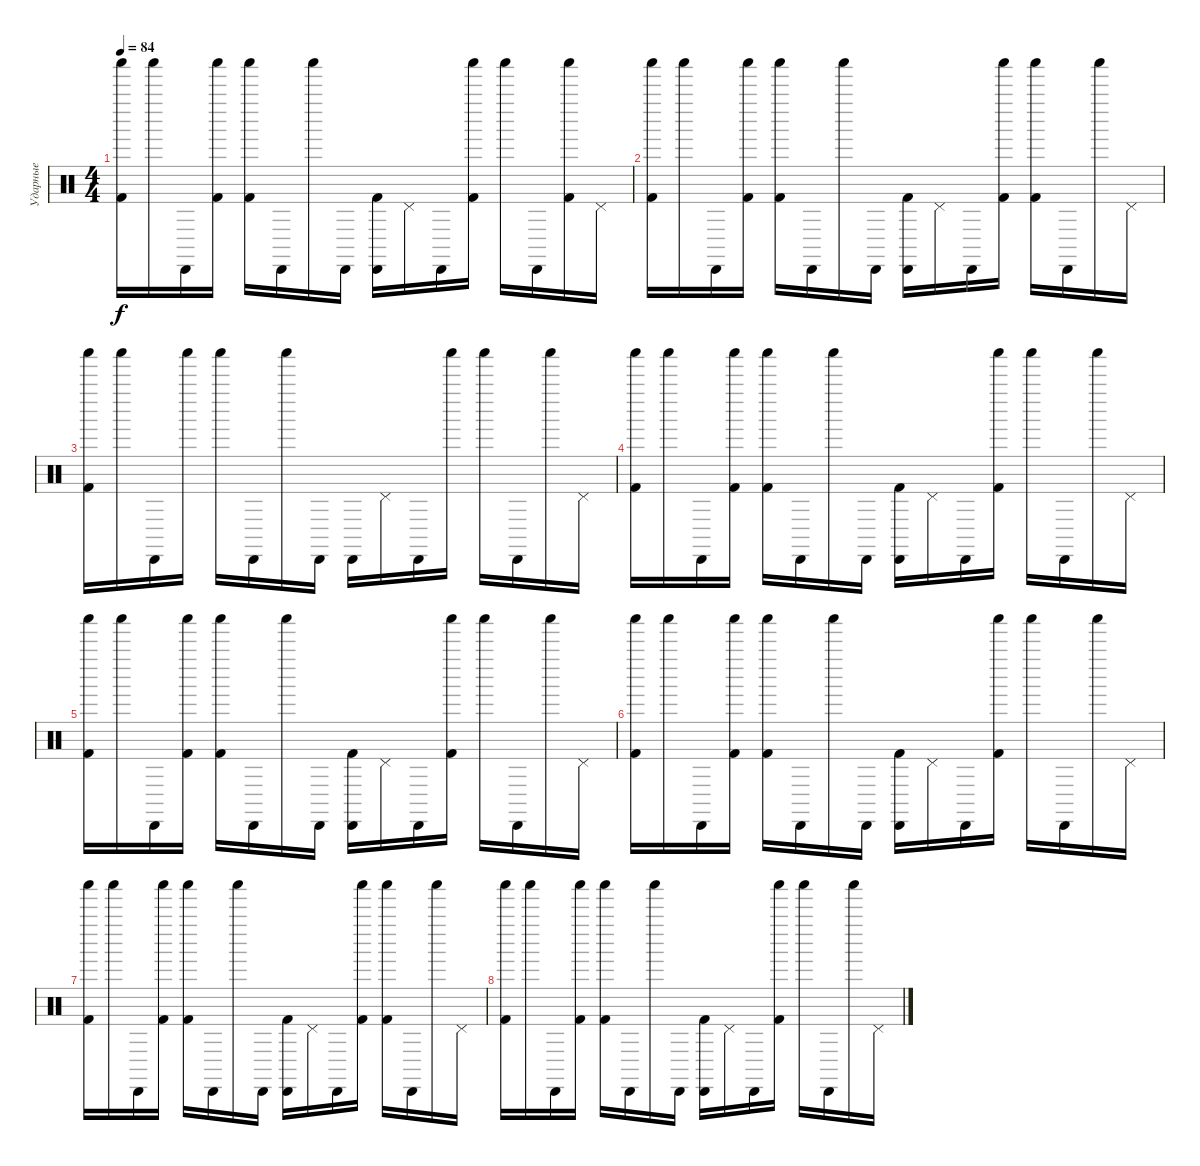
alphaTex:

\track ("Ударные" "Ударные") {instrument percussion}
\staff {score}
\articulation defaults
\ts (4 4)
\tempo 84
\clef neutral
\ks c
("Shaker (hit)" "Kick (hit) 2").16{dy f} "Shaker (hit)".16 "Cabasa (hit)".16 ("Shaker (hit)" "Kick (hit) 2").16 ("Shaker (hit)" "Kick (hit) 2").16 "Cabasa (hit)".16 "Shaker (hit)".16 "Cabasa (hit)".16 ("Cabasa (hit)" "Kick (hit) 2").16 "Pedal Hi-Hat (hit)".16 "Cabasa (hit)".16 ("Shaker (hit)" "Kick (hit) 2").16 "Shaker (hit)".16 "Cabasa (hit)".16 ("Shaker (hit)" "Kick (hit) 2").16 "Pedal Hi-Hat (hit)".16 |
("Shaker (hit)" "Kick (hit) 2").16 "Shaker (hit)".16 "Cabasa (hit)".16 ("Shaker (hit)" "Kick (hit) 2").16 ("Shaker (hit)" "Kick (hit) 2").16 "Cabasa (hit)".16 "Shaker (hit)".16 "Cabasa (hit)".16 ("Cabasa (hit)" "Kick (hit) 2").16 "Pedal Hi-Hat (hit)".16 "Cabasa (hit)".16 ("Shaker (hit)" "Kick (hit) 2").16 ("Shaker (hit)" "Kick (hit) 2").16 "Cabasa (hit)".16 "Shaker (hit)".16 "Pedal Hi-Hat (hit)".16 |
("Shaker (hit)" "Kick (hit) 2").16 "Shaker (hit)".16 "Cabasa (hit)".16 "Shaker (hit)".16 "Shaker (hit)".16 "Cabasa (hit)".16 "Shaker (hit)".16 "Cabasa (hit)".16 "Cabasa (hit)".16 "Pedal Hi-Hat (hit)".16 "Cabasa (hit)".16 "Shaker (hit)".16 "Shaker (hit)".16 "Cabasa (hit)".16 "Shaker (hit)".16 "Pedal Hi-Hat (hit)".16 |
("Shaker (hit)" "Kick (hit) 2").16 "Shaker (hit)".16 "Cabasa (hit)".16 ("Shaker (hit)" "Kick (hit) 2").16 ("Shaker (hit)" "Kick (hit) 2").16 "Cabasa (hit)".16 "Shaker (hit)".16 "Cabasa (hit)".16 ("Cabasa (hit)" "Kick (hit) 2").16 "Pedal Hi-Hat (hit)".16 "Cabasa (hit)".16 ("Shaker (hit)" "Kick (hit) 2").16 "Shaker (hit)".16 "Cabasa (hit)".16 "Shaker (hit)".16 "Pedal Hi-Hat (hit)".16 |
("Shaker (hit)" "Kick (hit) 2").16 "Shaker (hit)".16 "Cabasa (hit)".16 ("Shaker (hit)" "Kick (hit) 2").16 ("Shaker (hit)" "Kick (hit) 2").16 "Cabasa (hit)".16 "Shaker (hit)".16 "Cabasa (hit)".16 ("Cabasa (hit)" "Kick (hit) 2").16 "Pedal Hi-Hat (hit)".16 "Cabasa (hit)".16 ("Shaker (hit)" "Kick (hit) 2").16 "Shaker (hit)".16 "Cabasa (hit)".16 "Shaker (hit)".16 "Pedal Hi-Hat (hit)".16 |
("Shaker (hit)" "Kick (hit) 2").16 "Shaker (hit)".16 "Cabasa (hit)".16 ("Shaker (hit)" "Kick (hit) 2").16 ("Shaker (hit)" "Kick (hit) 2").16 "Cabasa (hit)".16 "Shaker (hit)".16 "Cabasa (hit)".16 ("Cabasa (hit)" "Kick (hit) 2").16 "Pedal Hi-Hat (hit)".16 "Cabasa (hit)".16 ("Shaker (hit)" "Kick (hit) 2").16 "Shaker (hit)".16 "Cabasa (hit)".16 "Shaker (hit)".16 "Pedal Hi-Hat (hit)".16 |
("Shaker (hit)" "Kick (hit) 2").16 "Shaker (hit)".16 "Cabasa (hit)".16 ("Shaker (hit)" "Kick (hit) 2").16 ("Shaker (hit)" "Kick (hit) 2").16 "Cabasa (hit)".16 "Shaker (hit)".16 "Cabasa (hit)".16 ("Cabasa (hit)" "Kick (hit) 2").16 "Pedal Hi-Hat (hit)".16 "Cabasa (hit)".16 ("Shaker (hit)" "Kick (hit) 2").16 ("Shaker (hit)" "Kick (hit) 2").16 "Cabasa (hit)".16 "Shaker (hit)".16 "Pedal Hi-Hat (hit)".16 |
("Shaker (hit)" "Kick (hit) 2").16 "Shaker (hit)".16 "Cabasa (hit)".16 ("Shaker (hit)" "Kick (hit) 2").16 ("Shaker (hit)" "Kick (hit) 2").16 "Cabasa (hit)".16 "Shaker (hit)".16 "Cabasa (hit)".16 ("Cabasa (hit)" "Kick (hit) 2").16 "Pedal Hi-Hat (hit)".16 "Cabasa (hit)".16 ("Shaker (hit)" "Kick (hit) 2").16 "Shaker (hit)".16 "Cabasa (hit)".16 "Shaker (hit)".16 "Pedal Hi-Hat (hit)".16
